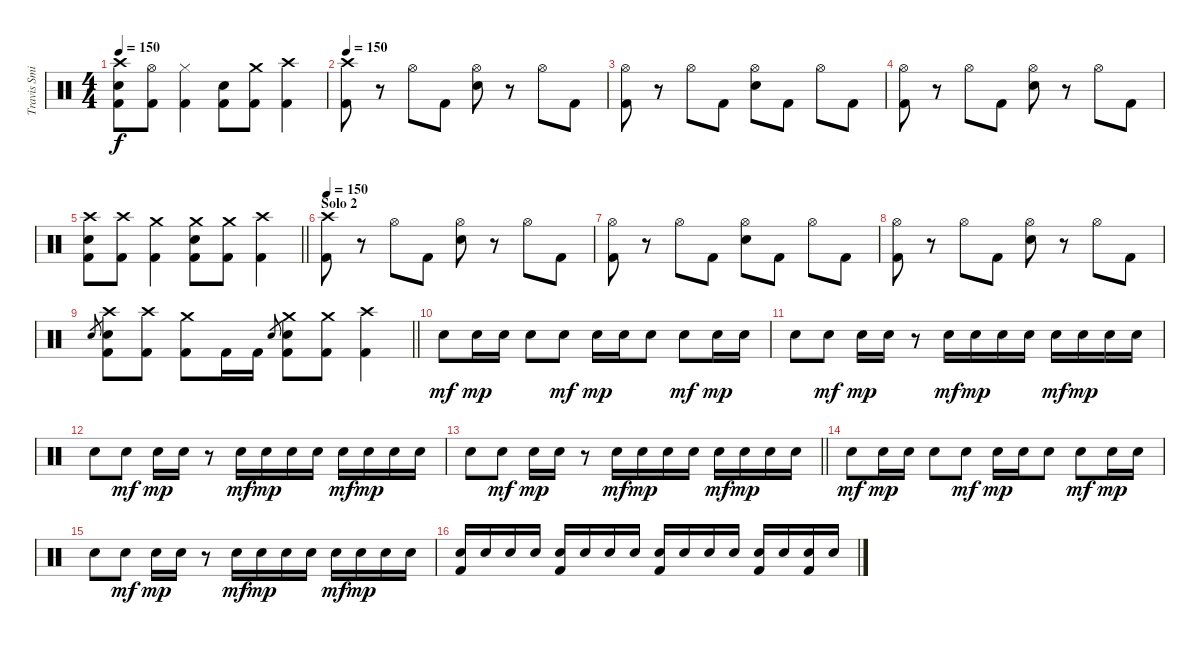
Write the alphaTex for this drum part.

\track ("Travis Smith" "Travis Smi") {instrument percussion}
\staff {score}
\articulation defaults
\ts (4 4)
\tempo 150
\clef neutral
\ks c
("Crash high (hit)" "Electric Snare (hit)" "Kick (hit) 2").8{dy f} ("Hi-Hat (open)" "Kick (hit) 2").8 ("Hi-Hat (closed)" "Kick (hit) 2").4 ("Electric Snare (hit)" "Kick (hit) 2").8 ("Crash medium (hit)" "Kick (hit) 2").8 ("Crash high (hit)" "Kick (hit) 2").4 |
\tempo 150
("Crash high (hit)" "Kick (hit) 2").8 r.8 "Hi-Hat (open)".8 "Kick (hit) 2".8 ("Hi-Hat (open)" "Electric Snare (hit)").8 r.8 "Hi-Hat (open)".8 "Kick (hit) 2".8 |
("Hi-Hat (open)" "Kick (hit) 2").8 r.8 "Hi-Hat (open)".8 "Kick (hit) 2".8 ("Hi-Hat (open)" "Electric Snare (hit)").8 "Kick (hit) 2".8 "Hi-Hat (open)".8 "Kick (hit) 2".8 |
("Hi-Hat (open)" "Kick (hit) 2").8 r.8 "Hi-Hat (open)".8 "Kick (hit) 2".8 ("Hi-Hat (open)" "Electric Snare (hit)").8 r.8 "Hi-Hat (open)".8 "Kick (hit) 2".8 |
\barLineRight lightlight
("Crash high (hit)" "Electric Snare (hit)" "Kick (hit) 2").8 ("Crash high (hit)" "Kick (hit) 2").8 ("Crash medium (hit)" "Kick (hit) 2").4 ("Crash medium (hit)" "Electric Snare (hit)" "Kick (hit) 2").8 ("Crash medium (hit)" "Kick (hit) 2").8 ("Crash high (hit)" "Kick (hit) 2").4 |
\section ("" "Solo 2")
\tempo 150
("Crash high (hit)" "Kick (hit) 2").8 r.8 "Hi-Hat (open)".8 "Kick (hit) 2".8 ("Hi-Hat (open)" "Electric Snare (hit)").8 r.8 "Hi-Hat (open)".8 "Kick (hit) 2".8 |
("Hi-Hat (open)" "Kick (hit) 2").8 r.8 "Hi-Hat (open)".8 "Kick (hit) 2".8 ("Hi-Hat (open)" "Electric Snare (hit)").8 "Kick (hit) 2".8 "Hi-Hat (open)".8 "Kick (hit) 2".8 |
("Hi-Hat (open)" "Kick (hit) 2").8 r.8 "Hi-Hat (open)".8 "Kick (hit) 2".8 ("Hi-Hat (open)" "Electric Snare (hit)").8 r.8 "Hi-Hat (open)".8 "Kick (hit) 2".8 |
\barLineRight lightlight "Electric Snare (hit)".8{gr}
("Crash high (hit)" "Electric Snare (hit)" "Kick (hit) 2").8 ("Crash high (hit)" "Kick (hit) 2").8 ("Crash medium (hit)" "Kick (hit) 2").8 "Kick (hit) 2".16 "Kick (hit) 2".16 "Electric Snare (hit)".8{gr} ("Crash medium (hit)" "Electric Snare (hit)" "Kick (hit) 2").8 ("Crash medium (hit)" "Kick (hit) 2").8 ("Crash high (hit)" "Kick (hit) 2").4 |
"Electric Snare (hit)".8{dy mf} "Electric Snare (hit)".16{dy mp} "Electric Snare (hit)".16 "Electric Snare (hit)".8 "Electric Snare (hit)".8{dy mf} "Electric Snare (hit)".16{dy mp} "Electric Snare (hit)".16 "Electric Snare (hit)".8 "Electric Snare (hit)".8{dy mf} "Electric Snare (hit)".16{dy mp} "Electric Snare (hit)".16 |
"Electric Snare (hit)".8 "Electric Snare (hit)".8{dy mf} "Electric Snare (hit)".16{dy mp} "Electric Snare (hit)".16 r.8 "Electric Snare (hit)".16{dy mf} "Electric Snare (hit)".16{dy mp} "Electric Snare (hit)".16 "Electric Snare (hit)".16 "Electric Snare (hit)".16{dy mf} "Electric Snare (hit)".16{dy mp} "Electric Snare (hit)".16 "Electric Snare (hit)".16 |
"Electric Snare (hit)".8 "Electric Snare (hit)".8{dy mf} "Electric Snare (hit)".16{dy mp} "Electric Snare (hit)".16 r.8 "Electric Snare (hit)".16{dy mf} "Electric Snare (hit)".16{dy mp} "Electric Snare (hit)".16 "Electric Snare (hit)".16 "Electric Snare (hit)".16{dy mf} "Electric Snare (hit)".16{dy mp} "Electric Snare (hit)".16 "Electric Snare (hit)".16 |
\barLineRight lightlight "Electric Snare (hit)".8 "Electric Snare (hit)".8{dy mf} "Electric Snare (hit)".16{dy mp} "Electric Snare (hit)".16
r.8 "Electric Snare (hit)".16{dy mf} "Electric Snare (hit)".16{dy mp} "Electric Snare (hit)".16 "Electric Snare (hit)".16 "Electric Snare (hit)".16{dy mf} "Electric Snare (hit)".16{dy mp} "Electric Snare (hit)".16 "Electric Snare (hit)".16 |
"Electric Snare (hit)".8{dy mf} "Electric Snare (hit)".16{dy mp} "Electric Snare (hit)".16 "Electric Snare (hit)".8 "Electric Snare (hit)".8{dy mf} "Electric Snare (hit)".16{dy mp} "Electric Snare (hit)".16 "Electric Snare (hit)".8 "Electric Snare (hit)".8{dy mf} "Electric Snare (hit)".16{dy mp} "Electric Snare (hit)".16 |
"Electric Snare (hit)".8 "Electric Snare (hit)".8{dy mf} "Electric Snare (hit)".16{dy mp} "Electric Snare (hit)".16 r.8 "Electric Snare (hit)".16{dy mf} "Electric Snare (hit)".16{dy mp} "Electric Snare (hit)".16 "Electric Snare (hit)".16 "Electric Snare (hit)".16{dy mf} "Electric Snare (hit)".16{dy mp} "Electric Snare (hit)".16 "Electric Snare (hit)".16 |
("Electric Snare (hit)" "Kick (hit) 2").16 "Electric Snare (hit)".16 "Electric Snare (hit)".16 "Electric Snare (hit)".16 ("Electric Snare (hit)" "Kick (hit) 2").16 "Electric Snare (hit)".16 "Electric Snare (hit)".16 "Electric Snare (hit)".16 ("Electric Snare (hit)" "Kick (hit) 2").16 "Electric Snare (hit)".16 "Electric Snare (hit)".16 "Electric Snare (hit)".16 ("Electric Snare (hit)" "Kick (hit) 2").16 "Electric Snare (hit)".16 ("Electric Snare (hit)" "Kick (hit) 2").16 "Electric Snare (hit)".16
